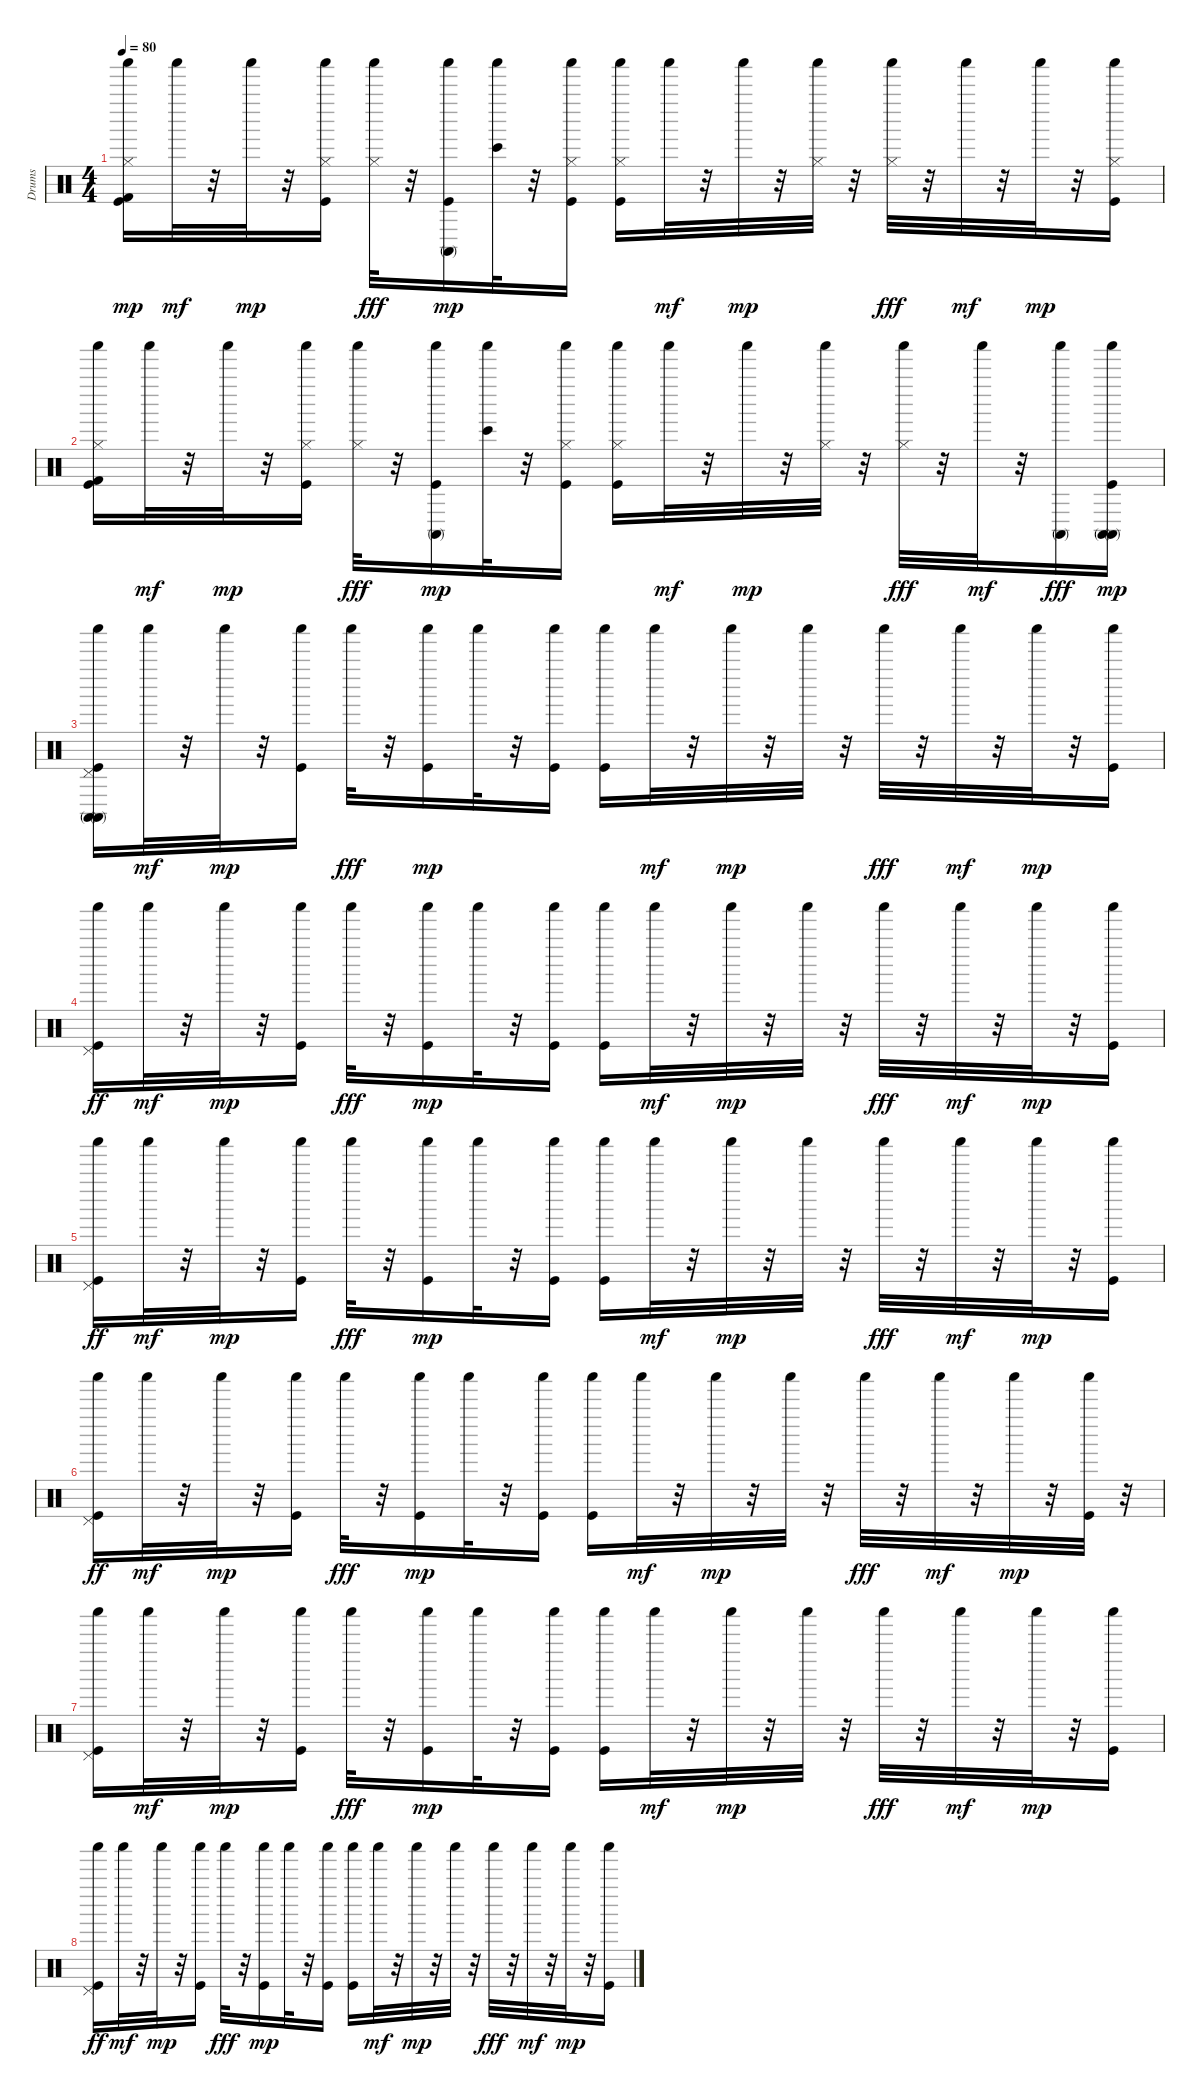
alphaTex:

\track ("Drums" "Drums") {instrument percussion}
\staff {score}
\articulation defaults
\ts (4 4)
\tempo 80
\clef neutral
\ks c
("Kick (hit) 2" "Hi-Hat (closed)" "Shaker (hit)" "Kick (hit)").16{dy mp} "Shaker (hit)".32{dy mf} r.32 "Shaker (hit)".32{dy mp} r.32 ("Hi-Hat (closed)" "Shaker (hit)" "Kick (hit)").16 ("Hi-Hat (closed)" "Shaker (hit)").32{dy fff} r.32 ("Conga high (mute)" "Shaker (hit)" "Kick (hit)").16{dy mp} ("Bongo High (hit)" "Shaker (hit)").32 r.32 ("Hi-Hat (closed)" "Shaker (hit)" "Kick (hit)").16 ("Hi-Hat (closed)" "Shaker (hit)" "Kick (hit)").16 "Shaker (hit)".32{dy mf} r.32 "Shaker (hit)".32{dy mp} r.32 ("Hi-Hat (closed)" "Shaker (hit)").32 r.32 ("Hi-Hat (closed)" "Shaker (hit)").32{dy fff} r.32 "Shaker (hit)".32{dy mf} r.32 "Shaker (hit)".32{dy mp} r.32 ("Hi-Hat (closed)" "Shaker (hit)" "Kick (hit)").16 |
("Kick (hit) 2" "Hi-Hat (closed)" "Shaker (hit)" "Kick (hit)").16 "Shaker (hit)".32{dy mf} r.32 "Shaker (hit)".32{dy mp} r.32 ("Hi-Hat (closed)" "Shaker (hit)" "Kick (hit)").16 ("Hi-Hat (closed)" "Shaker (hit)").32{dy fff} r.32 ("Conga high (mute)" "Shaker (hit)" "Kick (hit)").16{dy mp} ("Bongo High (hit)" "Shaker (hit)").32 r.32 ("Hi-Hat (closed)" "Shaker (hit)" "Kick (hit)").16 ("Hi-Hat (closed)" "Shaker (hit)" "Kick (hit)").16 "Shaker (hit)".32{dy mf} r.32 "Shaker (hit)".32{dy mp} r.32 ("Shaker (hit)" "Hi-Hat (closed)").32 r.32 ("Hi-Hat (closed)" "Shaker (hit)").32{dy fff} r.32 "Shaker (hit)".32{dy mf} r.32 ("Shaker (hit)" "Conga high (mute)").16{dy fff} ("Conga high (mute)" "Shaker (hit)" "Conga high (mute)" "Kick (hit)").16{dy mp} |
("Conga high (mute)" "Pedal Hi-Hat (hit)" "Conga high (mute)" "Shaker (hit)" "Kick (hit)").16 "Shaker (hit)".32{dy mf} r.32 "Shaker (hit)".32{dy mp} r.32 ("Shaker (hit)" "Kick (hit)").16 "Shaker (hit)".32{dy fff} r.32 ("Shaker (hit)" "Kick (hit)").16{dy mp} "Shaker (hit)".32 r.32 ("Shaker (hit)" "Kick (hit)").16 ("Shaker (hit)" "Kick (hit)").16 "Shaker (hit)".32{dy mf} r.32 "Shaker (hit)".32{dy mp} r.32 "Shaker (hit)".32 r.32 "Shaker (hit)".32{dy fff} r.32 "Shaker (hit)".32{dy mf} r.32 "Shaker (hit)".32{dy mp} r.32 ("Shaker (hit)" "Kick (hit)").16 |
("Shaker (hit)" "Kick (hit)" "Pedal Hi-Hat (hit)").16{dy ff} "Shaker (hit)".32{dy mf} r.32 "Shaker (hit)".32{dy mp} r.32 ("Shaker (hit)" "Kick (hit)").16 "Shaker (hit)".32{dy fff} r.32 ("Shaker (hit)" "Kick (hit)").16{dy mp} "Shaker (hit)".32 r.32 ("Shaker (hit)" "Kick (hit)").16 ("Shaker (hit)" "Kick (hit)").16 "Shaker (hit)".32{dy mf} r.32 "Shaker (hit)".32{dy mp} r.32 "Shaker (hit)".32 r.32 "Shaker (hit)".32{dy fff} r.32 "Shaker (hit)".32{dy mf} r.32 "Shaker (hit)".32{dy mp} r.32 ("Shaker (hit)" "Kick (hit)").16 |
("Shaker (hit)" "Kick (hit)" "Pedal Hi-Hat (hit)").16{dy ff} "Shaker (hit)".32{dy mf} r.32 "Shaker (hit)".32{dy mp} r.32 ("Shaker (hit)" "Kick (hit)").16 "Shaker (hit)".32{dy fff} r.32 ("Shaker (hit)" "Kick (hit)").16{dy mp} "Shaker (hit)".32 r.32 ("Shaker (hit)" "Kick (hit)").16 ("Shaker (hit)" "Kick (hit)").16 "Shaker (hit)".32{dy mf} r.32 "Shaker (hit)".32{dy mp} r.32 "Shaker (hit)".32 r.32 "Shaker (hit)".32{dy fff} r.32 "Shaker (hit)".32{dy mf} r.32 "Shaker (hit)".32{dy mp} r.32 ("Shaker (hit)" "Kick (hit)").16 |
("Shaker (hit)" "Kick (hit)" "Pedal Hi-Hat (hit)").16{dy ff} "Shaker (hit)".32{dy mf} r.32 "Shaker (hit)".32{dy mp} r.32 ("Shaker (hit)" "Kick (hit)").16 "Shaker (hit)".32{dy fff} r.32 ("Shaker (hit)" "Kick (hit)").16{dy mp} "Shaker (hit)".32 r.32 ("Shaker (hit)" "Kick (hit)").16 ("Shaker (hit)" "Kick (hit)").16 "Shaker (hit)".32{dy mf} r.32 "Shaker (hit)".32{dy mp} r.32 "Shaker (hit)".32 r.32 "Shaker (hit)".32{dy fff} r.32 "Shaker (hit)".32{dy mf} r.32 "Shaker (hit)".32{dy mp} r.32 ("Shaker (hit)" "Kick (hit)").32 r.32 |
("Shaker (hit)" "Pedal Hi-Hat (hit)" "Kick (hit)").16 "Shaker (hit)".32{dy mf} r.32 "Shaker (hit)".32{dy mp} r.32 ("Shaker (hit)" "Kick (hit)").16 "Shaker (hit)".32{dy fff} r.32 ("Shaker (hit)" "Kick (hit)").16{dy mp} "Shaker (hit)".32 r.32 ("Shaker (hit)" "Kick (hit)").16 ("Shaker (hit)" "Kick (hit)").16 "Shaker (hit)".32{dy mf} r.32 "Shaker (hit)".32{dy mp} r.32 "Shaker (hit)".32 r.32 "Shaker (hit)".32{dy fff} r.32 "Shaker (hit)".32{dy mf} r.32 "Shaker (hit)".32{dy mp} r.32 ("Shaker (hit)" "Kick (hit)").16 |
("Shaker (hit)" "Kick (hit)" "Pedal Hi-Hat (hit)").16{dy ff} "Shaker (hit)".32{dy mf} r.32 "Shaker (hit)".32{dy mp} r.32 ("Shaker (hit)" "Kick (hit)").16 "Shaker (hit)".32{dy fff} r.32 ("Shaker (hit)" "Kick (hit)").16{dy mp} "Shaker (hit)".32 r.32 ("Shaker (hit)" "Kick (hit)").16 ("Shaker (hit)" "Kick (hit)").16 "Shaker (hit)".32{dy mf} r.32 "Shaker (hit)".32{dy mp} r.32 "Shaker (hit)".32 r.32 "Shaker (hit)".32{dy fff} r.32 "Shaker (hit)".32{dy mf} r.32 "Shaker (hit)".32{dy mp} r.32 ("Shaker (hit)" "Kick (hit)").16
